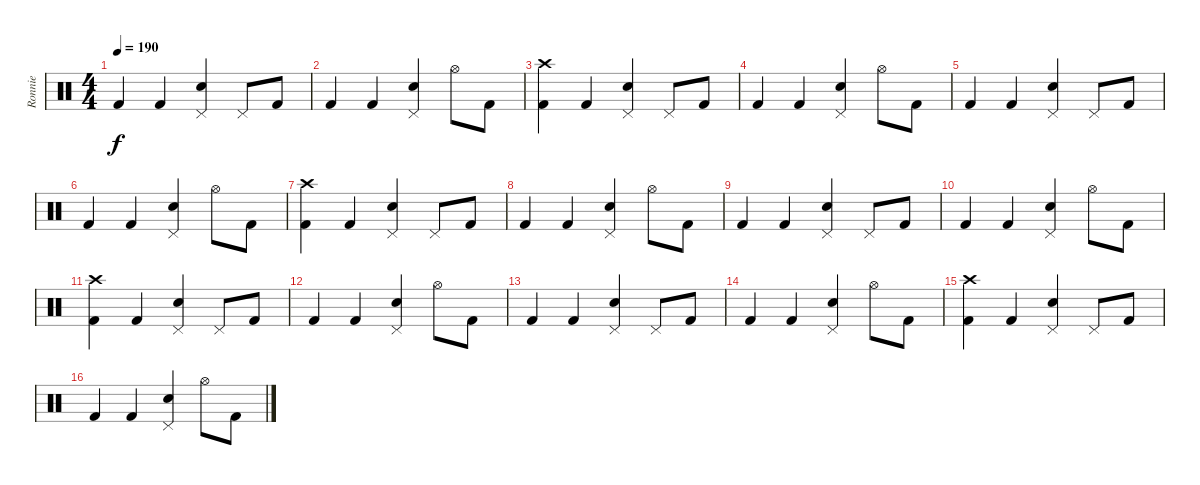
\track ("Ronnie" "Ronnie") {instrument percussion}
\staff {score}
\articulation defaults
\ts (4 4)
\tempo 190
\clef neutral
\ks c "Kick (hit) 2".4{dy f} "Kick (hit) 2".4
("Electric Snare (hit)" "Pedal Hi-Hat (hit)").4 "Pedal Hi-Hat (hit)".8 "Kick (hit) 2".8 |
"Kick (hit) 2".4 "Kick (hit) 2".4 ("Electric Snare (hit)" "Pedal Hi-Hat (hit)").4 "Hi-Hat (open)".8 "Kick (hit) 2".8 |
("Crash high (hit)" "Kick (hit) 2").4 "Kick (hit) 2".4 ("Electric Snare (hit)" "Pedal Hi-Hat (hit)").4 "Pedal Hi-Hat (hit)".8 "Kick (hit) 2".8 |
"Kick (hit) 2".4 "Kick (hit) 2".4 ("Electric Snare (hit)" "Pedal Hi-Hat (hit)").4 "Hi-Hat (open)".8 "Kick (hit) 2".8 |
"Kick (hit) 2".4 "Kick (hit) 2".4 ("Electric Snare (hit)" "Pedal Hi-Hat (hit)").4 "Pedal Hi-Hat (hit)".8 "Kick (hit) 2".8 |
"Kick (hit) 2".4 "Kick (hit) 2".4 ("Electric Snare (hit)" "Pedal Hi-Hat (hit)").4 "Hi-Hat (open)".8 "Kick (hit) 2".8 |
("Crash high (hit)" "Kick (hit) 2").4 "Kick (hit) 2".4 ("Electric Snare (hit)" "Pedal Hi-Hat (hit)").4 "Pedal Hi-Hat (hit)".8 "Kick (hit) 2".8 |
"Kick (hit) 2".4 "Kick (hit) 2".4 ("Electric Snare (hit)" "Pedal Hi-Hat (hit)").4 "Hi-Hat (open)".8 "Kick (hit) 2".8 |
"Kick (hit) 2".4 "Kick (hit) 2".4 ("Electric Snare (hit)" "Pedal Hi-Hat (hit)").4 "Pedal Hi-Hat (hit)".8 "Kick (hit) 2".8 |
"Kick (hit) 2".4 "Kick (hit) 2".4 ("Electric Snare (hit)" "Pedal Hi-Hat (hit)").4 "Hi-Hat (open)".8 "Kick (hit) 2".8 |
("Crash high (hit)" "Kick (hit) 2").4 "Kick (hit) 2".4 ("Electric Snare (hit)" "Pedal Hi-Hat (hit)").4 "Pedal Hi-Hat (hit)".8 "Kick (hit) 2".8 |
"Kick (hit) 2".4 "Kick (hit) 2".4 ("Electric Snare (hit)" "Pedal Hi-Hat (hit)").4 "Hi-Hat (open)".8 "Kick (hit) 2".8 |
"Kick (hit) 2".4 "Kick (hit) 2".4 ("Electric Snare (hit)" "Pedal Hi-Hat (hit)").4 "Pedal Hi-Hat (hit)".8 "Kick (hit) 2".8 |
"Kick (hit) 2".4 "Kick (hit) 2".4 ("Electric Snare (hit)" "Pedal Hi-Hat (hit)").4 "Hi-Hat (open)".8 "Kick (hit) 2".8 |
("Crash high (hit)" "Kick (hit) 2").4 "Kick (hit) 2".4 ("Electric Snare (hit)" "Pedal Hi-Hat (hit)").4 "Pedal Hi-Hat (hit)".8 "Kick (hit) 2".8 |
"Kick (hit) 2".4 "Kick (hit) 2".4 ("Electric Snare (hit)" "Pedal Hi-Hat (hit)").4 "Hi-Hat (open)".8 "Kick (hit) 2".8
